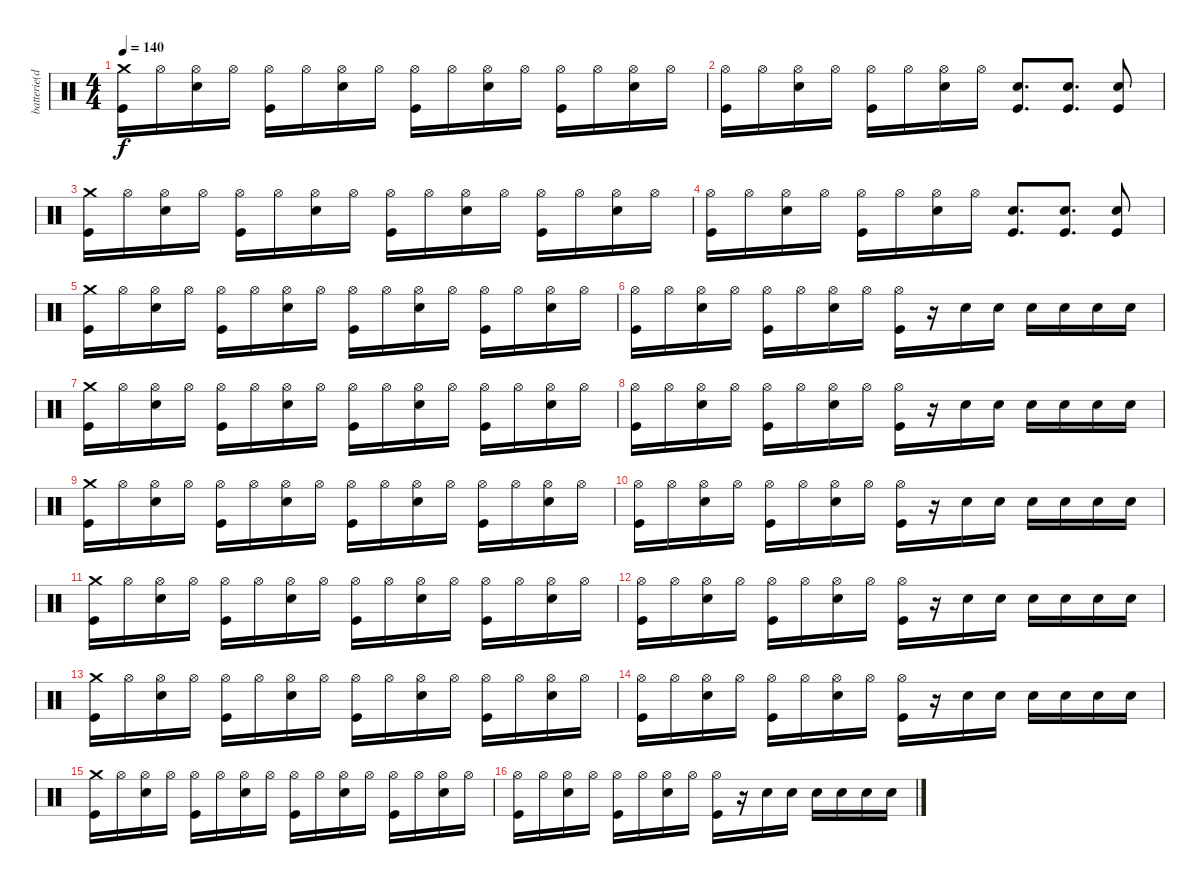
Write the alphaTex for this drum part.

\track ("batterie(dru stix)" "batterie(d") {instrument percussion}
\staff {score}
\articulation defaults
\ts (4 4)
\tempo 140
\clef neutral
\ks c
("Crash medium (hit)" "Kick (hit)").16{dy f} "Hi-Hat (open)".16 ("Hi-Hat (open)" "Snare (hit) 2").16 "Hi-Hat (open)".16 ("Hi-Hat (open)" "Kick (hit)").16 "Hi-Hat (open)".16 ("Hi-Hat (open)" "Snare (hit) 2").16 "Hi-Hat (open)".16 ("Hi-Hat (open)" "Kick (hit)").16 "Hi-Hat (open)".16 ("Hi-Hat (open)" "Snare (hit) 2").16 "Hi-Hat (open)".16 ("Hi-Hat (open)" "Kick (hit)").16 "Hi-Hat (open)".16 ("Hi-Hat (open)" "Snare (hit) 2").16 "Hi-Hat (open)".16 |
("Hi-Hat (open)" "Kick (hit)").16 "Hi-Hat (open)".16 ("Hi-Hat (open)" "Snare (hit) 2").16 "Hi-Hat (open)".16 ("Hi-Hat (open)" "Kick (hit)").16 "Hi-Hat (open)".16 ("Hi-Hat (open)" "Snare (hit) 2").16 "Hi-Hat (open)".16 ("Snare (hit) 2" "Kick (hit)").8{d} ("Snare (hit) 2" "Kick (hit)").8{d} ("Snare (hit) 2" "Kick (hit)").8 |
("Crash medium (hit)" "Kick (hit)").16 "Hi-Hat (open)".16 ("Hi-Hat (open)" "Snare (hit) 2").16 "Hi-Hat (open)".16 ("Hi-Hat (open)" "Kick (hit)").16 "Hi-Hat (open)".16 ("Hi-Hat (open)" "Snare (hit) 2").16 "Hi-Hat (open)".16 ("Hi-Hat (open)" "Kick (hit)").16 "Hi-Hat (open)".16 ("Hi-Hat (open)" "Snare (hit) 2").16 "Hi-Hat (open)".16 ("Hi-Hat (open)" "Kick (hit)").16 "Hi-Hat (open)".16 ("Hi-Hat (open)" "Snare (hit) 2").16 "Hi-Hat (open)".16 |
("Hi-Hat (open)" "Kick (hit)").16 "Hi-Hat (open)".16 ("Hi-Hat (open)" "Snare (hit) 2").16 "Hi-Hat (open)".16 ("Hi-Hat (open)" "Kick (hit)").16 "Hi-Hat (open)".16 ("Hi-Hat (open)" "Snare (hit) 2").16 "Hi-Hat (open)".16 ("Snare (hit) 2" "Kick (hit)").8{d} ("Snare (hit) 2" "Kick (hit)").8{d} ("Snare (hit) 2" "Kick (hit)").8 |
("Crash medium (hit)" "Kick (hit)").16 "Hi-Hat (open)".16 ("Hi-Hat (open)" "Snare (hit) 2").16 "Hi-Hat (open)".16 ("Hi-Hat (open)" "Kick (hit)").16 "Hi-Hat (open)".16 ("Hi-Hat (open)" "Snare (hit) 2").16 "Hi-Hat (open)".16 ("Hi-Hat (open)" "Kick (hit)").16 "Hi-Hat (open)".16 ("Hi-Hat (open)" "Snare (hit) 2").16 "Hi-Hat (open)".16 ("Hi-Hat (open)" "Kick (hit)").16 "Hi-Hat (open)".16 ("Hi-Hat (open)" "Snare (hit) 2").16 "Hi-Hat (open)".16 |
("Hi-Hat (open)" "Kick (hit)").16 "Hi-Hat (open)".16 ("Hi-Hat (open)" "Snare (hit) 2").16 "Hi-Hat (open)".16 ("Hi-Hat (open)" "Kick (hit)").16 "Hi-Hat (open)".16 ("Hi-Hat (open)" "Snare (hit) 2").16 "Hi-Hat (open)".16 ("Hi-Hat (open)" "Kick (hit)").16 r.16 "Snare (hit) 2".16 "Snare (hit) 2".16 "Snare (hit) 2".16 "Snare (hit) 2".16 "Snare (hit) 2".16 "Snare (hit) 2".16 |
("Crash medium (hit)" "Kick (hit)").16 "Hi-Hat (open)".16 ("Hi-Hat (open)" "Snare (hit) 2").16 "Hi-Hat (open)".16 ("Hi-Hat (open)" "Kick (hit)").16 "Hi-Hat (open)".16 ("Hi-Hat (open)" "Snare (hit) 2").16 "Hi-Hat (open)".16 ("Hi-Hat (open)" "Kick (hit)").16 "Hi-Hat (open)".16 ("Hi-Hat (open)" "Snare (hit) 2").16 "Hi-Hat (open)".16 ("Hi-Hat (open)" "Kick (hit)").16 "Hi-Hat (open)".16 ("Hi-Hat (open)" "Snare (hit) 2").16 "Hi-Hat (open)".16 |
("Hi-Hat (open)" "Kick (hit)").16 "Hi-Hat (open)".16 ("Hi-Hat (open)" "Snare (hit) 2").16 "Hi-Hat (open)".16 ("Hi-Hat (open)" "Kick (hit)").16 "Hi-Hat (open)".16 ("Hi-Hat (open)" "Snare (hit) 2").16 "Hi-Hat (open)".16 ("Hi-Hat (open)" "Kick (hit)").16 r.16 "Snare (hit) 2".16 "Snare (hit) 2".16 "Snare (hit) 2".16 "Snare (hit) 2".16 "Snare (hit) 2".16 "Snare (hit) 2".16 |
("Crash medium (hit)" "Kick (hit)").16 "Hi-Hat (open)".16 ("Hi-Hat (open)" "Snare (hit) 2").16 "Hi-Hat (open)".16 ("Hi-Hat (open)" "Kick (hit)").16 "Hi-Hat (open)".16 ("Hi-Hat (open)" "Snare (hit) 2").16 "Hi-Hat (open)".16 ("Hi-Hat (open)" "Kick (hit)").16 "Hi-Hat (open)".16 ("Hi-Hat (open)" "Snare (hit) 2").16 "Hi-Hat (open)".16 ("Hi-Hat (open)" "Kick (hit)").16 "Hi-Hat (open)".16 ("Hi-Hat (open)" "Snare (hit) 2").16 "Hi-Hat (open)".16 |
("Hi-Hat (open)" "Kick (hit)").16 "Hi-Hat (open)".16 ("Hi-Hat (open)" "Snare (hit) 2").16 "Hi-Hat (open)".16 ("Hi-Hat (open)" "Kick (hit)").16 "Hi-Hat (open)".16 ("Hi-Hat (open)" "Snare (hit) 2").16 "Hi-Hat (open)".16 ("Hi-Hat (open)" "Kick (hit)").16 r.16 "Snare (hit) 2".16 "Snare (hit) 2".16 "Snare (hit) 2".16 "Snare (hit) 2".16 "Snare (hit) 2".16 "Snare (hit) 2".16 |
("Crash medium (hit)" "Kick (hit)").16 "Hi-Hat (open)".16 ("Hi-Hat (open)" "Snare (hit) 2").16 "Hi-Hat (open)".16 ("Hi-Hat (open)" "Kick (hit)").16 "Hi-Hat (open)".16 ("Hi-Hat (open)" "Snare (hit) 2").16 "Hi-Hat (open)".16 ("Hi-Hat (open)" "Kick (hit)").16 "Hi-Hat (open)".16 ("Hi-Hat (open)" "Snare (hit) 2").16 "Hi-Hat (open)".16 ("Hi-Hat (open)" "Kick (hit)").16 "Hi-Hat (open)".16 ("Hi-Hat (open)" "Snare (hit) 2").16 "Hi-Hat (open)".16 |
("Hi-Hat (open)" "Kick (hit)").16 "Hi-Hat (open)".16 ("Hi-Hat (open)" "Snare (hit) 2").16 "Hi-Hat (open)".16 ("Hi-Hat (open)" "Kick (hit)").16 "Hi-Hat (open)".16 ("Hi-Hat (open)" "Snare (hit) 2").16 "Hi-Hat (open)".16 ("Hi-Hat (open)" "Kick (hit)").16 r.16 "Snare (hit) 2".16 "Snare (hit) 2".16 "Snare (hit) 2".16 "Snare (hit) 2".16 "Snare (hit) 2".16 "Snare (hit) 2".16 |
("Crash medium (hit)" "Kick (hit)").16 "Hi-Hat (open)".16 ("Hi-Hat (open)" "Snare (hit) 2").16 "Hi-Hat (open)".16 ("Hi-Hat (open)" "Kick (hit)").16 "Hi-Hat (open)".16 ("Hi-Hat (open)" "Snare (hit) 2").16 "Hi-Hat (open)".16 ("Hi-Hat (open)" "Kick (hit)").16 "Hi-Hat (open)".16 ("Hi-Hat (open)" "Snare (hit) 2").16 "Hi-Hat (open)".16 ("Hi-Hat (open)" "Kick (hit)").16 "Hi-Hat (open)".16 ("Hi-Hat (open)" "Snare (hit) 2").16 "Hi-Hat (open)".16 |
("Hi-Hat (open)" "Kick (hit)").16 "Hi-Hat (open)".16 ("Hi-Hat (open)" "Snare (hit) 2").16 "Hi-Hat (open)".16 ("Hi-Hat (open)" "Kick (hit)").16 "Hi-Hat (open)".16 ("Hi-Hat (open)" "Snare (hit) 2").16 "Hi-Hat (open)".16 ("Hi-Hat (open)" "Kick (hit)").16 r.16 "Snare (hit) 2".16 "Snare (hit) 2".16 "Snare (hit) 2".16 "Snare (hit) 2".16 "Snare (hit) 2".16 "Snare (hit) 2".16 |
("Crash medium (hit)" "Kick (hit)").16 "Hi-Hat (open)".16 ("Hi-Hat (open)" "Snare (hit) 2").16 "Hi-Hat (open)".16 ("Hi-Hat (open)" "Kick (hit)").16 "Hi-Hat (open)".16 ("Hi-Hat (open)" "Snare (hit) 2").16 "Hi-Hat (open)".16 ("Hi-Hat (open)" "Kick (hit)").16 "Hi-Hat (open)".16 ("Hi-Hat (open)" "Snare (hit) 2").16 "Hi-Hat (open)".16 ("Hi-Hat (open)" "Kick (hit)").16 "Hi-Hat (open)".16 ("Hi-Hat (open)" "Snare (hit) 2").16 "Hi-Hat (open)".16 |
("Hi-Hat (open)" "Kick (hit)").16 "Hi-Hat (open)".16 ("Hi-Hat (open)" "Snare (hit) 2").16 "Hi-Hat (open)".16 ("Hi-Hat (open)" "Kick (hit)").16 "Hi-Hat (open)".16 ("Hi-Hat (open)" "Snare (hit) 2").16 "Hi-Hat (open)".16 ("Hi-Hat (open)" "Kick (hit)").16 r.16 "Snare (hit) 2".16 "Snare (hit) 2".16 "Snare (hit) 2".16 "Snare (hit) 2".16 "Snare (hit) 2".16 "Snare (hit) 2".16
